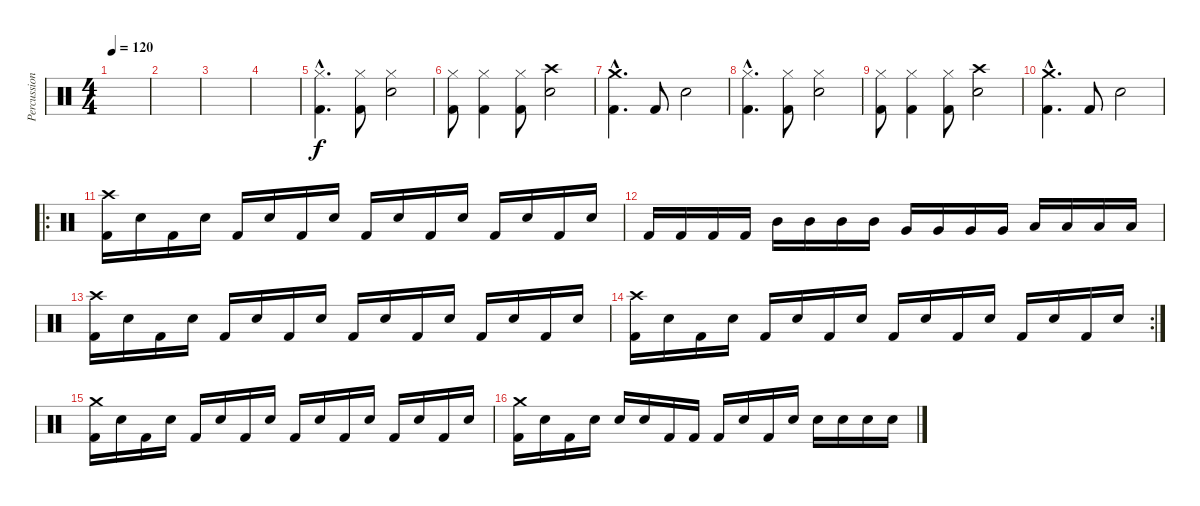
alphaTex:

\track ("Percussion" "Percussion") {instrument percussion}
\staff {score}
\articulation defaults
\ts (4 4)
\tempo 120
\clef neutral
\ks c
|
|
|
|
("Hi-Hat (closed)"{hac} "Kick (hit) 2"{hac}).4{d} ("Hi-Hat (closed)" "Kick (hit) 2").8 ("Hi-Hat (closed)" "Snare (hit) 2").2 |
("Hi-Hat (closed)" "Kick (hit) 2").8 ("Hi-Hat (closed)" "Kick (hit) 2").4 ("Hi-Hat (closed)" "Kick (hit) 2").8 ("Crash high (hit)" "Snare (hit) 2").2 |
("Crash medium (hit)"{hac} "Kick (hit) 2"{hac}).4{d} "Kick (hit) 2".8 "Snare (hit) 2".2 |
("Hi-Hat (closed)"{hac} "Kick (hit) 2"{hac}).4{d} ("Hi-Hat (closed)" "Kick (hit) 2").8 ("Hi-Hat (closed)" "Snare (hit) 2").2 |
("Hi-Hat (closed)" "Kick (hit) 2").8 ("Hi-Hat (closed)" "Kick (hit) 2").4 ("Hi-Hat (closed)" "Kick (hit) 2").8 ("Crash high (hit)" "Snare (hit) 2").2 |
("Crash medium (hit)"{hac} "Kick (hit) 2"{hac}).4{d} "Kick (hit) 2".8 "Snare (hit) 2".2 |
\ro
("Crash high (hit)" "Kick (hit) 2").16 "Snare (hit) 2".16 "Kick (hit) 2".16 "Snare (hit) 2".16 "Kick (hit) 2".16 "Snare (hit) 2".16 "Kick (hit) 2".16 "Snare (hit) 2".16 "Kick (hit) 2".16 "Snare (hit) 2".16 "Kick (hit) 2".16 "Snare (hit) 2".16 "Kick (hit) 2".16 "Snare (hit) 2".16 "Kick (hit) 2".16 "Snare (hit) 2".16 |
"Kick (hit) 2".16 "Kick (hit) 2".16 "Kick (hit) 2".16 "Kick (hit) 2".16 "Mid Tom (hit)".16 "Mid Tom (hit)".16 "Mid Tom (hit)".16 "Mid Tom (hit)".16 "Very Low Tom (hit)".16 "Very Low Tom (hit)".16 "Very Low Tom (hit)".16 "Very Low Tom (hit)".16 "Low Tom (hit)".16 "Low Tom (hit)".16 "Low Tom (hit)".16 "Low Tom (hit)".16 |
("Crash high (hit)" "Kick (hit) 2").16 "Snare (hit) 2".16 "Kick (hit) 2".16 "Snare (hit) 2".16 "Kick (hit) 2".16 "Snare (hit) 2".16 "Kick (hit) 2".16 "Snare (hit) 2".16 "Kick (hit) 2".16 "Snare (hit) 2".16 "Kick (hit) 2".16 "Snare (hit) 2".16 "Kick (hit) 2".16 "Snare (hit) 2".16 "Kick (hit) 2".16 "Snare (hit) 2".16 |
\rc 2
("Crash high (hit)" "Kick (hit) 2").16 "Snare (hit) 2".16 "Kick (hit) 2".16 "Snare (hit) 2".16 "Kick (hit) 2".16 "Snare (hit) 2".16 "Kick (hit) 2".16 "Snare (hit) 2".16 "Kick (hit) 2".16 "Snare (hit) 2".16 "Kick (hit) 2".16 "Snare (hit) 2".16 "Kick (hit) 2".16 "Snare (hit) 2".16 "Kick (hit) 2".16 "Snare (hit) 2".16 |
("Crash medium (hit)" "Kick (hit) 2").16 "Snare (hit) 2".16 "Kick (hit) 2".16 "Snare (hit) 2".16 "Kick (hit) 2".16 "Snare (hit) 2".16 "Kick (hit) 2".16 "Snare (hit) 2".16 "Kick (hit) 2".16 "Snare (hit) 2".16 "Kick (hit) 2".16 "Snare (hit) 2".16 "Kick (hit) 2".16 "Snare (hit) 2".16 "Kick (hit) 2".16 "Snare (hit) 2".16 |
("Crash medium (hit)" "Kick (hit) 2").16 "Snare (hit) 2".16 "Kick (hit) 2".16 "Snare (hit) 2".16 "Snare (hit) 2".16 "Snare (hit) 2".16 "Kick (hit) 2".16 "Kick (hit) 2".16 "Kick (hit) 2".16 "Snare (hit) 2".16 "Kick (hit) 2".16 "Snare (hit) 2".16 "Snare (hit) 2".16 "Snare (hit) 2".16 "Snare (hit) 2".16 "Snare (hit) 2".16
